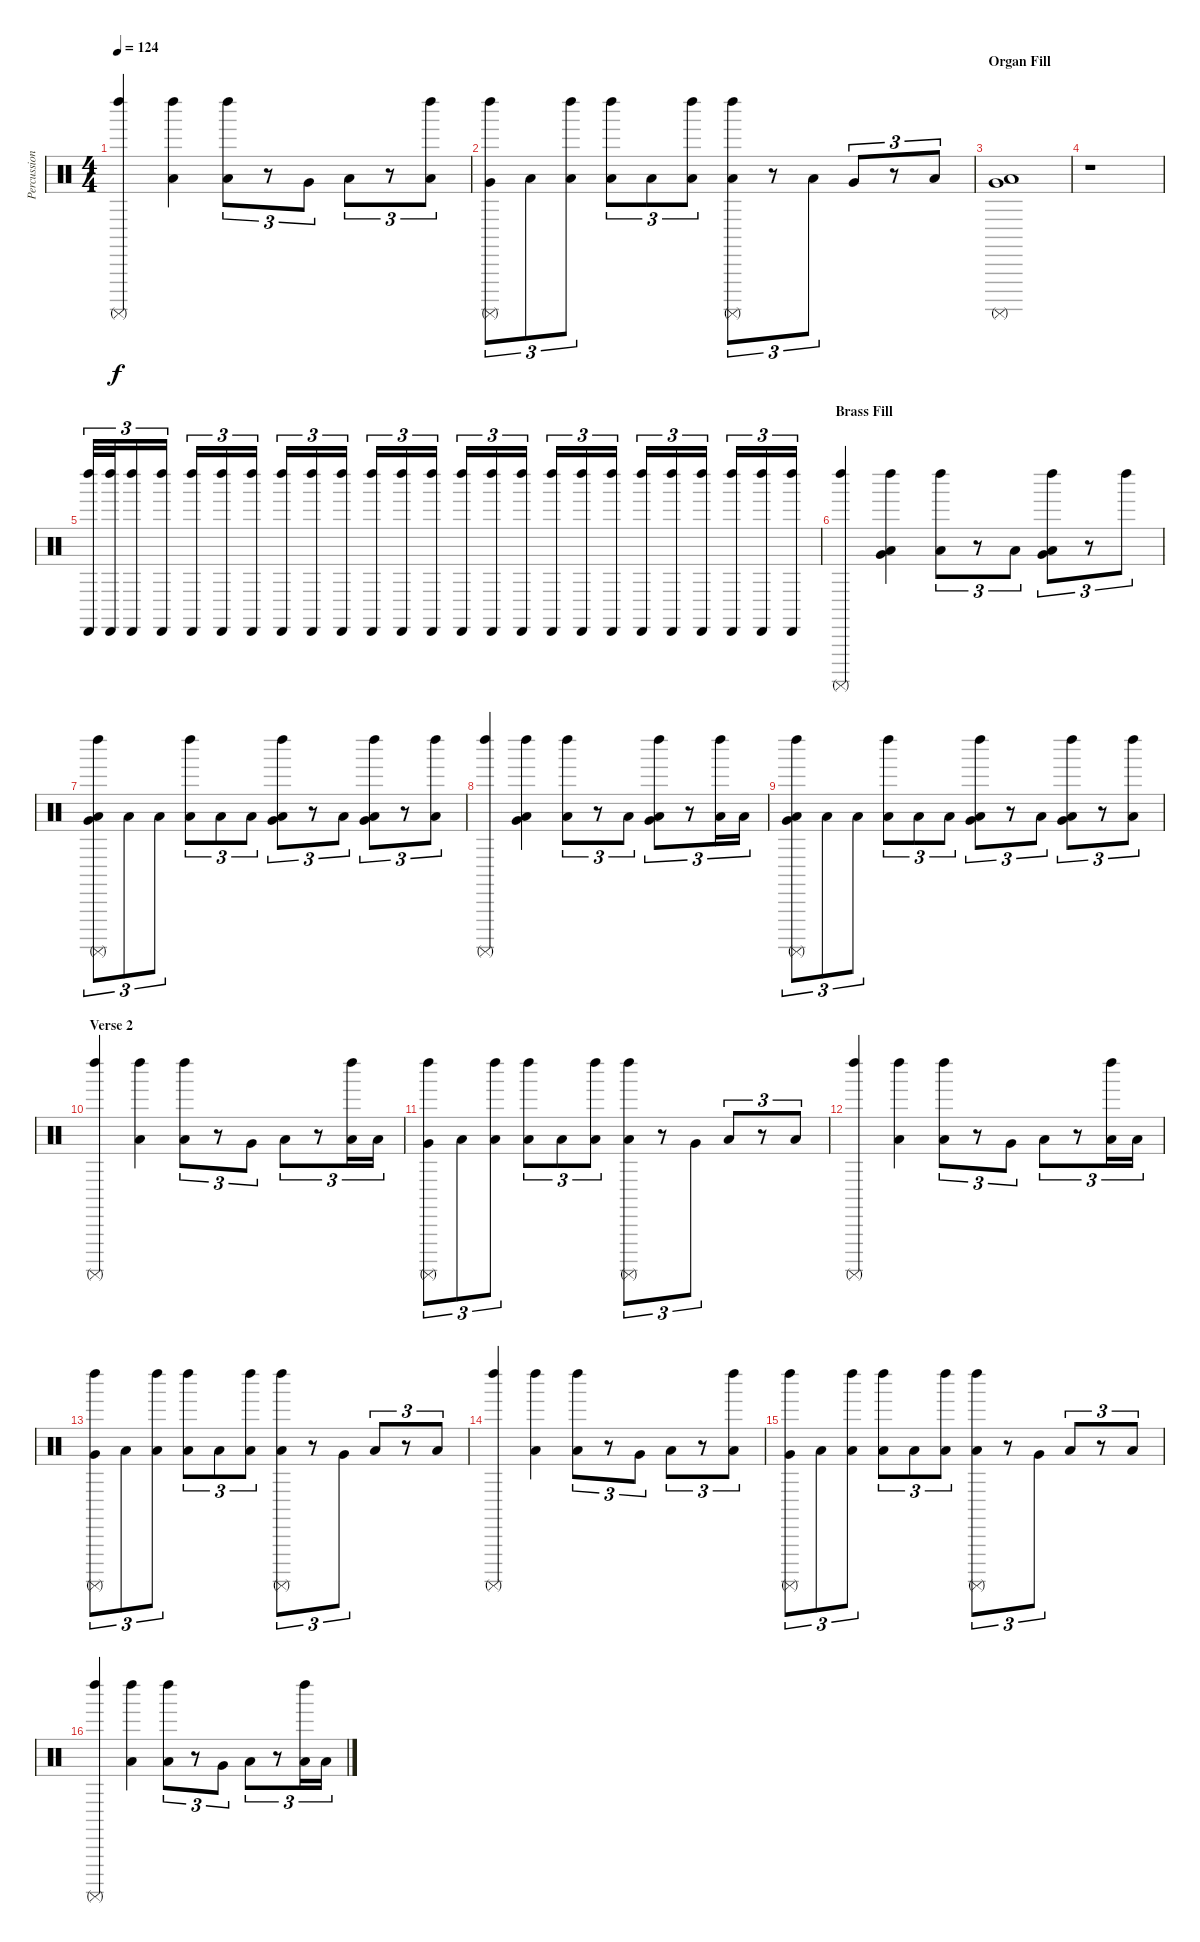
\track ("Percussion" "Percussion") {instrument percussion}
\staff {score}
\articulation defaults
\ts (4 4)
\tempo 124
\clef neutral
\ks c
("Left Maraca (hit)" "Surdo (mute)").4{dy f} ("Left Maraca (hit)" "Low Floor Tom (hit)").4 ("Left Maraca (hit)" "Low Floor Tom (hit)").8{tu (3 2)} r.8{tu (3 2)} "Very Low Tom (hit)".8{tu (3 2)} "Low Floor Tom (hit)".8{tu (3 2)} r.8{tu (3 2)} ("Left Maraca (hit)" "Low Floor Tom (hit)").8{tu (3 2)} |
("Left Maraca (hit)" "Very Low Tom (hit)" "Surdo (mute)").8{tu (3 2)} "Low Floor Tom (hit)".8{tu (3 2)} ("Left Maraca (hit)" "Low Floor Tom (hit)").8{tu (3 2)} ("Left Maraca (hit)" "Low Floor Tom (hit)").8{tu (3 2)} "Low Floor Tom (hit)".8{tu (3 2)} ("Left Maraca (hit)" "Low Floor Tom (hit)").8{tu (3 2)} ("Left Maraca (hit)" "Low Floor Tom (hit)" "Surdo (mute)").8{tu (3 2)} r.8{tu (3 2)} "Low Floor Tom (hit)".8{tu (3 2)} "Very Low Tom (hit)".8{tu (3 2)} r.8{tu (3 2)} "Low Floor Tom (hit)".8{tu (3 2)} |
\section ("" "Organ Fill")
("Very Low Tom (hit)" "Low Floor Tom (hit)" "Surdo (mute)").1 |
r.1 |
("Left Maraca (hit)" "Cabasa (hit)").32{tu (3 2) volume 6} ("Left Maraca (hit)" "Cabasa (hit)").32{tu (3 2)} ("Left Maraca (hit)" "Cabasa (hit)").16{tu (3 2)} ("Left Maraca (hit)" "Cabasa (hit)").16{tu (3 2)} ("Left Maraca (hit)" "Cabasa (hit)").16{tu (3 2) volume 4} ("Left Maraca (hit)" "Cabasa (hit)").16{tu (3 2)} ("Left Maraca (hit)" "Cabasa (hit)").16{tu (3 2)} ("Left Maraca (hit)" "Cabasa (hit)").16{tu (3 2)} ("Left Maraca (hit)" "Cabasa (hit)").16{tu (3 2)} ("Left Maraca (hit)" "Cabasa (hit)").16{tu (3 2)} ("Left Maraca (hit)" "Cabasa (hit)").16{tu (3 2)} ("Left Maraca (hit)" "Cabasa (hit)").16{tu (3 2)} ("Left Maraca (hit)" "Cabasa (hit)").16{tu (3 2)} ("Left Maraca (hit)" "Cabasa (hit)").16{tu (3 2)} ("Left Maraca (hit)" "Cabasa (hit)").16{tu (3 2)} ("Left Maraca (hit)" "Cabasa (hit)").16{tu (3 2)} ("Left Maraca (hit)" "Cabasa (hit)").16{tu (3 2)} ("Left Maraca (hit)" "Cabasa (hit)").16{tu (3 2)} ("Left Maraca (hit)" "Cabasa (hit)").16{tu (3 2)} ("Left Maraca (hit)" "Cabasa (hit)").16{tu (3 2)} ("Left Maraca (hit)" "Cabasa (hit)").16{tu (3 2)} ("Left Maraca (hit)" "Cabasa (hit)").16{tu (3 2)} ("Left Maraca (hit)" "Cabasa (hit)").16{tu (3 2)} ("Left Maraca (hit)" "Cabasa (hit)").16{tu (3 2)} ("Left Maraca (hit)" "Cabasa (hit)").16{tu (3 2)} |
\section ("" "Brass Fill")
("Left Maraca (hit)" "Surdo (mute)").4{volume 12} ("Left Maraca (hit)" "Very Low Tom (hit)" "Low Floor Tom (hit)").4 ("Left Maraca (hit)" "Low Floor Tom (hit)").8{tu (3 2)} r.8{tu (3 2)} "Low Floor Tom (hit)".8{tu (3 2)} ("Left Maraca (hit)" "Very Low Tom (hit)" "Low Floor Tom (hit)").8{tu (3 2)} r.8{tu (3 2)} "Left Maraca (hit)".8{tu (3 2)} |
("Left Maraca (hit)" "Very Low Tom (hit)" "Low Floor Tom (hit)" "Surdo (mute)").8{tu (3 2)} "Low Floor Tom (hit)".8{tu (3 2)} "Low Floor Tom (hit)".8{tu (3 2)} ("Left Maraca (hit)" "Low Floor Tom (hit)").8{tu (3 2)} "Low Floor Tom (hit)".8{tu (3 2)} "Low Floor Tom (hit)".8{tu (3 2)} ("Left Maraca (hit)" "Very Low Tom (hit)" "Low Floor Tom (hit)").8{tu (3 2)} r.8{tu (3 2)} "Low Floor Tom (hit)".8{tu (3 2)} ("Left Maraca (hit)" "Very Low Tom (hit)" "Low Floor Tom (hit)").8{tu (3 2)} r.8{tu (3 2)} ("Left Maraca (hit)" "Low Floor Tom (hit)").8{tu (3 2)} |
("Left Maraca (hit)" "Surdo (mute)").4 ("Left Maraca (hit)" "Very Low Tom (hit)" "Low Floor Tom (hit)").4 ("Left Maraca (hit)" "Low Floor Tom (hit)").8{tu (3 2)} r.8{tu (3 2)} "Low Floor Tom (hit)".8{tu (3 2)} ("Left Maraca (hit)" "Very Low Tom (hit)" "Low Floor Tom (hit)").8{tu (3 2)} r.8{tu (3 2)} ("Left Maraca (hit)" "Low Floor Tom (hit)").16{tu (3 2)} "Low Floor Tom (hit)".16{tu (3 2)} |
("Left Maraca (hit)" "Very Low Tom (hit)" "Low Floor Tom (hit)" "Surdo (mute)").8{tu (3 2)} "Low Floor Tom (hit)".8{tu (3 2)} "Low Floor Tom (hit)".8{tu (3 2)} ("Left Maraca (hit)" "Low Floor Tom (hit)").8{tu (3 2)} "Low Floor Tom (hit)".8{tu (3 2)} "Low Floor Tom (hit)".8{tu (3 2)} ("Left Maraca (hit)" "Very Low Tom (hit)" "Low Floor Tom (hit)").8{tu (3 2)} r.8{tu (3 2)} "Low Floor Tom (hit)".8{tu (3 2)} ("Left Maraca (hit)" "Very Low Tom (hit)" "Low Floor Tom (hit)").8{tu (3 2)} r.8{tu (3 2)} ("Left Maraca (hit)" "Low Floor Tom (hit)").8{tu (3 2)} |
\section ("" "Verse 2")
("Left Maraca (hit)" "Surdo (mute)").4 ("Left Maraca (hit)" "Low Floor Tom (hit)").4 ("Left Maraca (hit)" "Low Floor Tom (hit)").8{tu (3 2)} r.8{tu (3 2)} "Very Low Tom (hit)".8{tu (3 2)} "Low Floor Tom (hit)".8{tu (3 2)} r.8{tu (3 2)} ("Left Maraca (hit)" "Low Floor Tom (hit)").16{tu (3 2)} "Low Floor Tom (hit)".16{tu (3 2)} |
("Left Maraca (hit)" "Very Low Tom (hit)" "Surdo (mute)").8{tu (3 2)} "Low Floor Tom (hit)".8{tu (3 2)} ("Left Maraca (hit)" "Low Floor Tom (hit)").8{tu (3 2)} ("Left Maraca (hit)" "Low Floor Tom (hit)").8{tu (3 2)} "Low Floor Tom (hit)".8{tu (3 2)} ("Left Maraca (hit)" "Low Floor Tom (hit)").8{tu (3 2)} ("Left Maraca (hit)" "Low Floor Tom (hit)" "Surdo (mute)").8{tu (3 2)} r.8{tu (3 2)} "Very Low Tom (hit)".8{tu (3 2)} "Low Floor Tom (hit)".8{tu (3 2)} r.8{tu (3 2)} "Low Floor Tom (hit)".8{tu (3 2)} |
("Left Maraca (hit)" "Surdo (mute)").4 ("Left Maraca (hit)" "Low Floor Tom (hit)").4 ("Left Maraca (hit)" "Low Floor Tom (hit)").8{tu (3 2)} r.8{tu (3 2)} "Very Low Tom (hit)".8{tu (3 2)} "Low Floor Tom (hit)".8{tu (3 2)} r.8{tu (3 2)} ("Left Maraca (hit)" "Low Floor Tom (hit)").16{tu (3 2)} "Low Floor Tom (hit)".16{tu (3 2)} |
("Left Maraca (hit)" "Very Low Tom (hit)" "Surdo (mute)").8{tu (3 2)} "Low Floor Tom (hit)".8{tu (3 2)} ("Left Maraca (hit)" "Low Floor Tom (hit)").8{tu (3 2)} ("Left Maraca (hit)" "Low Floor Tom (hit)").8{tu (3 2)} "Low Floor Tom (hit)".8{tu (3 2)} ("Left Maraca (hit)" "Low Floor Tom (hit)").8{tu (3 2)} ("Left Maraca (hit)" "Low Floor Tom (hit)" "Surdo (mute)").8{tu (3 2)} r.8{tu (3 2)} "Very Low Tom (hit)".8{tu (3 2)} "Low Floor Tom (hit)".8{tu (3 2)} r.8{tu (3 2)} "Low Floor Tom (hit)".8{tu (3 2)} |
("Left Maraca (hit)" "Surdo (mute)").4 ("Left Maraca (hit)" "Low Floor Tom (hit)").4 ("Left Maraca (hit)" "Low Floor Tom (hit)").8{tu (3 2)} r.8{tu (3 2)} "Very Low Tom (hit)".8{tu (3 2)} "Low Floor Tom (hit)".8{tu (3 2)} r.8{tu (3 2)} ("Left Maraca (hit)" "Low Floor Tom (hit)").8{tu (3 2)} |
("Left Maraca (hit)" "Very Low Tom (hit)" "Surdo (mute)").8{tu (3 2)} "Low Floor Tom (hit)".8{tu (3 2)} ("Left Maraca (hit)" "Low Floor Tom (hit)").8{tu (3 2)} ("Left Maraca (hit)" "Low Floor Tom (hit)").8{tu (3 2)} "Low Floor Tom (hit)".8{tu (3 2)} ("Left Maraca (hit)" "Low Floor Tom (hit)").8{tu (3 2)} ("Left Maraca (hit)" "Low Floor Tom (hit)" "Surdo (mute)").8{tu (3 2)} r.8{tu (3 2)} "Very Low Tom (hit)".8{tu (3 2)} "Low Floor Tom (hit)".8{tu (3 2)} r.8{tu (3 2)} "Low Floor Tom (hit)".8{tu (3 2)} |
("Left Maraca (hit)" "Surdo (mute)").4 ("Left Maraca (hit)" "Low Floor Tom (hit)").4 ("Left Maraca (hit)" "Low Floor Tom (hit)").8{tu (3 2)} r.8{tu (3 2)} "Very Low Tom (hit)".8{tu (3 2)} "Low Floor Tom (hit)".8{tu (3 2)} r.8{tu (3 2)} ("Left Maraca (hit)" "Low Floor Tom (hit)").16{tu (3 2)} "Low Floor Tom (hit)".16{tu (3 2)}
